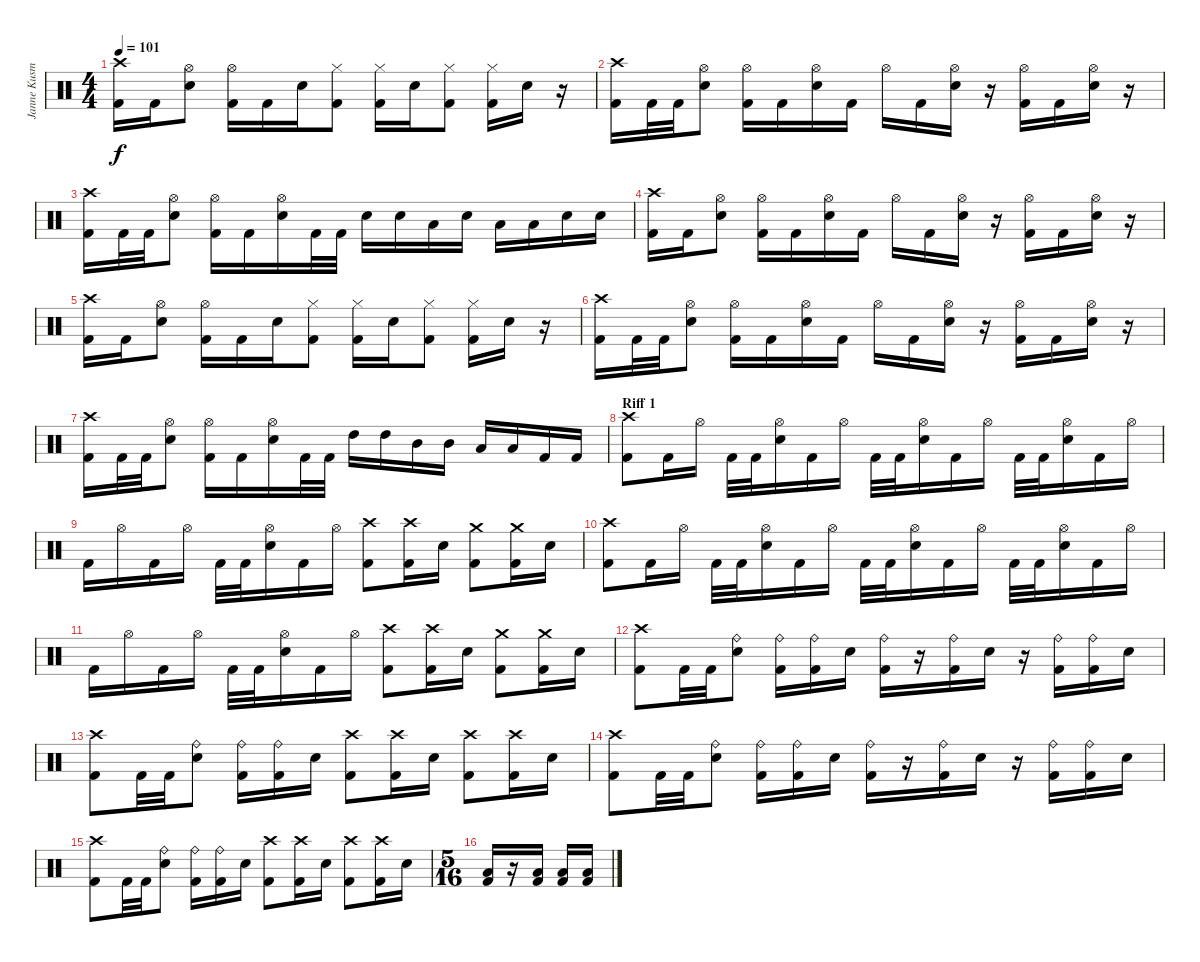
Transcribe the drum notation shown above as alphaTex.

\track ("Janne Kusmin" "Janne Kusm") {instrument percussion}
\staff {score}
\articulation defaults
\ts (4 4)
\tempo 101
\clef neutral
\ks c
("Crash high (hit)" "Kick (hit) 2").16{dy f} "Kick (hit) 2".16 ("Hi-Hat (open)" "Snare (hit) 2").8 ("Hi-Hat (open)" "Kick (hit) 2").16 "Kick (hit) 2".16 "Snare (hit) 2".16 ("Hi-Hat (closed)" "Kick (hit) 2").8 ("Hi-Hat (closed)" "Kick (hit) 2").16 "Snare (hit) 2".16 ("Hi-Hat (closed)" "Kick (hit) 2").8 ("Hi-Hat (closed)" "Kick (hit) 2").16 "Snare (hit) 2".16 r.16 |
("Crash high (hit)" "Kick (hit) 2").16 "Kick (hit) 2".32 "Kick (hit) 2".32 ("Hi-Hat (open)" "Snare (hit) 2").8 ("Hi-Hat (open)" "Kick (hit) 2").16 "Kick (hit) 2".16 ("Hi-Hat (open)" "Snare (hit) 2").16 "Kick (hit) 2".16 "Hi-Hat (open)".16 "Kick (hit) 2".16 ("Hi-Hat (open)" "Snare (hit) 2").16 r.16 ("Hi-Hat (open)" "Kick (hit) 2").16 "Kick (hit) 2".16 ("Hi-Hat (open)" "Snare (hit) 2").16 r.16 |
("Crash high (hit)" "Kick (hit) 2").16 "Kick (hit) 2".32 "Kick (hit) 2".32 ("Hi-Hat (open)" "Snare (hit) 2").8 ("Hi-Hat (open)" "Kick (hit) 2").16 "Kick (hit) 2".16 ("Hi-Hat (open)" "Snare (hit) 2").16 "Kick (hit) 2".32 "Kick (hit) 2".32 "Snare (hit) 2".16 "Snare (hit) 2".16 "Low Tom (hit)".16 "Snare (hit) 2".16 "Low Tom (hit)".16 "Low Tom (hit)".16 "Snare (hit) 2".16 "Snare (hit) 2".16 |
("Crash high (hit)" "Kick (hit) 2").16 "Kick (hit) 2".16 ("Hi-Hat (open)" "Snare (hit) 2").8 ("Hi-Hat (open)" "Kick (hit) 2").16 "Kick (hit) 2".16 ("Hi-Hat (open)" "Snare (hit) 2").16 "Kick (hit) 2".16 "Hi-Hat (open)".16 "Kick (hit) 2".16 ("Hi-Hat (open)" "Snare (hit) 2").16 r.16 ("Hi-Hat (open)" "Kick (hit) 2").16 "Kick (hit) 2".16 ("Hi-Hat (open)" "Snare (hit) 2").16 r.16 |
("Crash high (hit)" "Kick (hit) 2").16 "Kick (hit) 2".16 ("Hi-Hat (open)" "Snare (hit) 2").8 ("Hi-Hat (open)" "Kick (hit) 2").16 "Kick (hit) 2".16 "Snare (hit) 2".16 ("Hi-Hat (closed)" "Kick (hit) 2").8 ("Hi-Hat (closed)" "Kick (hit) 2").16 "Snare (hit) 2".16 ("Hi-Hat (closed)" "Kick (hit) 2").8 ("Hi-Hat (closed)" "Kick (hit) 2").16 "Snare (hit) 2".16 r.16 |
("Crash high (hit)" "Kick (hit) 2").16 "Kick (hit) 2".32 "Kick (hit) 2".32 ("Hi-Hat (open)" "Snare (hit) 2").8 ("Hi-Hat (open)" "Kick (hit) 2").16 "Kick (hit) 2".16 ("Hi-Hat (open)" "Snare (hit) 2").16 "Kick (hit) 2".16 "Hi-Hat (open)".16 "Kick (hit) 2".16 ("Hi-Hat (open)" "Snare (hit) 2").16 r.16 ("Hi-Hat (open)" "Kick (hit) 2").16 "Kick (hit) 2".16 ("Hi-Hat (open)" "Snare (hit) 2").16 r.16 |
("Crash high (hit)" "Kick (hit) 2").16 "Kick (hit) 2".32 "Kick (hit) 2".32 ("Hi-Hat (open)" "Snare (hit) 2").8 ("Hi-Hat (open)" "Kick (hit) 2").16 "Kick (hit) 2".16 ("Hi-Hat (open)" "Snare (hit) 2").16 "Kick (hit) 2".32 "Kick (hit) 2".32 "High Tom (hit)".16 "High Tom (hit)".16 "Mid Tom (hit)".16 "Mid Tom (hit)".16 "Low Tom (hit)".16 "Low Tom (hit)".16 "Kick (hit) 2".16 "Kick (hit) 2".16 |
\section ("" "Riff 1")
("Crash high (hit)" "Kick (hit) 2").8 "Kick (hit) 2".16 "Hi-Hat (open)".16 "Kick (hit) 2".32 "Kick (hit) 2".32 ("Hi-Hat (open)" "Snare (hit) 2").16 "Kick (hit) 2".16 "Hi-Hat (open)".16 "Kick (hit) 2".32 "Kick (hit) 2".32 ("Hi-Hat (open)" "Snare (hit) 2").16 "Kick (hit) 2".16 "Hi-Hat (open)".16 "Kick (hit) 2".32 "Kick (hit) 2".32 ("Hi-Hat (open)" "Snare (hit) 2").16 "Kick (hit) 2".16 "Hi-Hat (open)".16 |
"Kick (hit) 2".16 "Hi-Hat (open)".16 "Kick (hit) 2".16 "Hi-Hat (open)".16 "Kick (hit) 2".32 "Kick (hit) 2".32 ("Hi-Hat (open)" "Snare (hit) 2").16 "Kick (hit) 2".16 "Hi-Hat (open)".16 ("Crash high (hit)" "Kick (hit) 2").8 ("Crash high (hit)" "Kick (hit) 2").16 "Snare (hit) 2".16 ("Crash medium (hit)" "Kick (hit) 2").8 ("Crash medium (hit)" "Kick (hit) 2").16 "Snare (hit) 2".16 |
("Crash high (hit)" "Kick (hit) 2").8 "Kick (hit) 2".16 "Hi-Hat (open)".16 "Kick (hit) 2".32 "Kick (hit) 2".32 ("Hi-Hat (open)" "Snare (hit) 2").16 "Kick (hit) 2".16 "Hi-Hat (open)".16 "Kick (hit) 2".32 "Kick (hit) 2".32 ("Hi-Hat (open)" "Snare (hit) 2").16 "Kick (hit) 2".16 "Hi-Hat (open)".16 "Kick (hit) 2".32 "Kick (hit) 2".32 ("Hi-Hat (open)" "Snare (hit) 2").16 "Kick (hit) 2".16 "Hi-Hat (open)".16 |
"Kick (hit) 2".16 "Hi-Hat (open)".16 "Kick (hit) 2".16 "Hi-Hat (open)".16 "Kick (hit) 2".32 "Kick (hit) 2".32 ("Hi-Hat (open)" "Snare (hit) 2").16 "Kick (hit) 2".16 "Hi-Hat (open)".16 ("Crash high (hit)" "Kick (hit) 2").8 ("Crash high (hit)" "Kick (hit) 2").16 "Snare (hit) 2".16 ("Crash medium (hit)" "Kick (hit) 2").8 ("Crash medium (hit)" "Kick (hit) 2").16 "Snare (hit) 2".16 |
("Crash high (hit)" "Kick (hit) 2").8 "Kick (hit) 2".32 "Kick (hit) 2".32 ("Ride (bell)" "Snare (hit) 2").8 ("Ride (bell)" "Kick (hit) 2").16 ("Ride (bell)" "Kick (hit) 2").16 "Snare (hit) 2".16 ("Ride (bell)" "Kick (hit) 2").16 r.16 ("Ride (bell)" "Kick (hit) 2").16 "Snare (hit) 2".16 r.16 ("Ride (bell)" "Kick (hit) 2").16 ("Ride (bell)" "Kick (hit) 2").16 "Snare (hit) 2".16 |
("Crash high (hit)" "Kick (hit) 2").8 "Kick (hit) 2".32 "Kick (hit) 2".32 ("Ride (bell)" "Snare (hit) 2").8 ("Ride (bell)" "Kick (hit) 2").16 ("Ride (bell)" "Kick (hit) 2").16 "Snare (hit) 2".16 ("Crash high (hit)" "Kick (hit) 2").8 ("Crash high (hit)" "Kick (hit) 2").16 "Snare (hit) 2".16 ("Crash high (hit)" "Kick (hit) 2").8 ("Crash high (hit)" "Kick (hit) 2").16 "Snare (hit) 2".16 |
("Crash high (hit)" "Kick (hit) 2").8 "Kick (hit) 2".32 "Kick (hit) 2".32 ("Ride (bell)" "Snare (hit) 2").8 ("Ride (bell)" "Kick (hit) 2").16 ("Ride (bell)" "Kick (hit) 2").16 "Snare (hit) 2".16 ("Ride (bell)" "Kick (hit) 2").16 r.16 ("Ride (bell)" "Kick (hit) 2").16 "Snare (hit) 2".16 r.16 ("Ride (bell)" "Kick (hit) 2").16 ("Ride (bell)" "Kick (hit) 2").16 "Snare (hit) 2".16 |
("Crash high (hit)" "Kick (hit) 2").8 "Kick (hit) 2".32 "Kick (hit) 2".32 ("Ride (bell)" "Snare (hit) 2").8 ("Ride (bell)" "Kick (hit) 2").16 ("Ride (bell)" "Kick (hit) 2").16 "Snare (hit) 2".16 ("Crash high (hit)" "Kick (hit) 2").8 ("Crash high (hit)" "Kick (hit) 2").16 "Snare (hit) 2".16 ("Crash high (hit)" "Kick (hit) 2").8 ("Crash high (hit)" "Kick (hit) 2").16 "Snare (hit) 2".16 |
\ts (5 16)
("Low Tom (hit)" "Kick (hit) 2").16 r.16 ("Low Tom (hit)" "Kick (hit) 2").16 ("Low Tom (hit)" "Kick (hit) 2").16 ("Low Tom (hit)" "Kick (hit) 2").16
